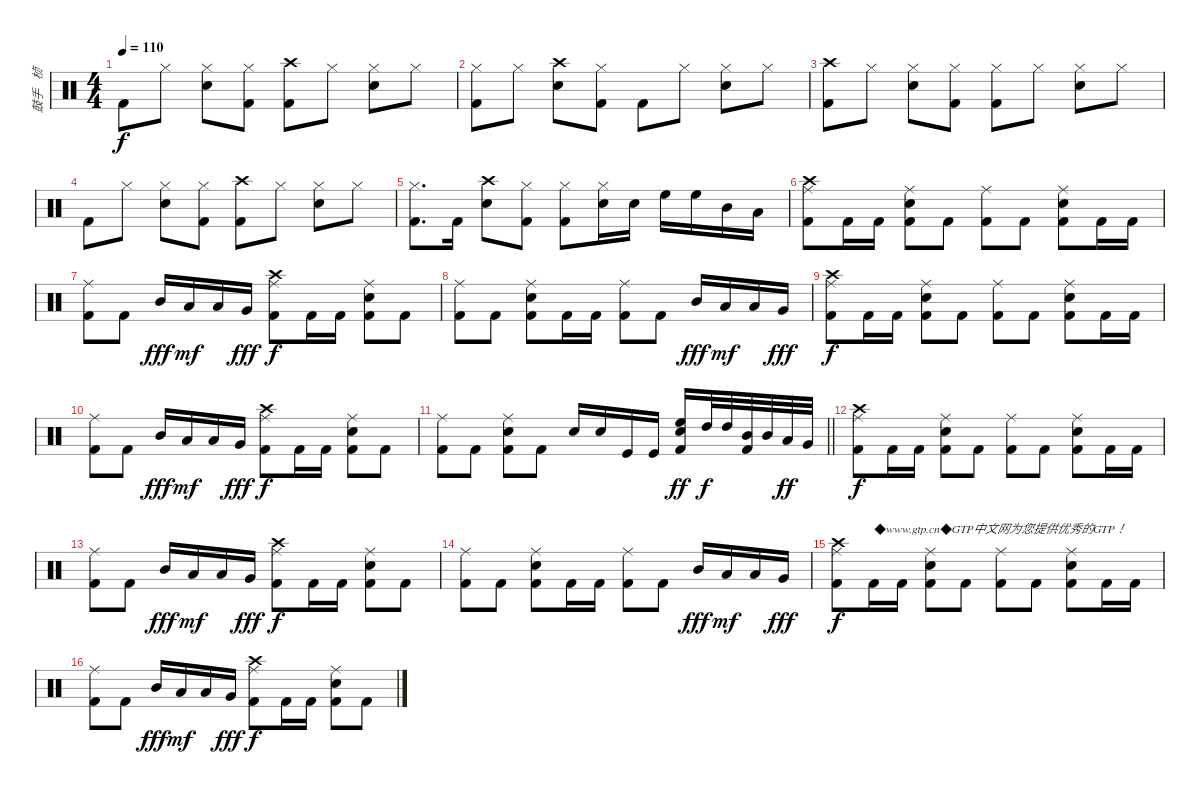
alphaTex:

\track ("鼓手   桢" "鼓手   桢") {instrument percussion bank 1}
\staff {score}
\articulation defaults
\ts (4 4)
\tempo 110
\clef neutral
\ks c "Kick (hit) 2".8{dy f} "Hi-Hat (closed)".8
("Hi-Hat (closed)" "Snare (hit) 2").8 ("Hi-Hat (closed)" "Kick (hit) 2").8 ("Crash high (hit)" "Kick (hit) 2").8 "Hi-Hat (closed)".8 ("Hi-Hat (closed)" "Snare (hit) 2").8 "Hi-Hat (closed)".8 |
("Hi-Hat (closed)" "Kick (hit) 2").8 "Hi-Hat (closed)".8 ("Crash high (hit)" "Snare (hit) 2").8 ("Hi-Hat (closed)" "Kick (hit) 2").8 "Kick (hit) 2".8 "Hi-Hat (closed)".8 ("Hi-Hat (closed)" "Snare (hit) 2").8 "Hi-Hat (closed)".8 |
("Crash high (hit)" "Kick (hit) 2").8 "Hi-Hat (closed)".8 ("Hi-Hat (closed)" "Snare (hit) 2").8 ("Hi-Hat (closed)" "Kick (hit) 2").8 ("Hi-Hat (closed)" "Kick (hit) 2").8 "Hi-Hat (closed)".8 ("Hi-Hat (closed)" "Snare (hit) 2").8 "Hi-Hat (closed)".8 |
"Kick (hit) 2".8 "Hi-Hat (closed)".8 ("Hi-Hat (closed)" "Snare (hit) 2").8 ("Hi-Hat (closed)" "Kick (hit) 2").8 ("Crash high (hit)" "Kick (hit) 2").8 "Hi-Hat (closed)".8 ("Hi-Hat (closed)" "Snare (hit) 2").8 "Hi-Hat (closed)".8 |
("Hi-Hat (closed)" "Kick (hit) 2").8{d} "Kick (hit) 2".16 ("Crash high (hit)" "Snare (hit) 2").8 ("Hi-Hat (closed)" "Kick (hit) 2").8 ("Hi-Hat (closed)" "Kick (hit) 2").8 ("Hi-Hat (closed)" "Snare (hit) 2").16 "Snare (hit) 2".16 "High Floor Tom (hit)".16 "High Floor Tom (hit)".16 "Mid Tom (hit)".16 "Low Tom (hit)".16 |
("Ride (middle)" "Kick (hit) 2" "Crash high (hit)").8 "Kick (hit) 2".16 "Kick (hit) 2".16 ("Ride (middle)" "Snare (hit) 2" "Kick (hit) 2").8 "Kick (hit) 2".8 ("Ride (middle)" "Kick (hit) 2").8 "Kick (hit) 2".8 ("Ride (middle)" "Snare (hit) 2" "Kick (hit) 2").8 "Kick (hit) 2".16 "Kick (hit) 2".16 |
("Ride (middle)" "Kick (hit) 2").8 "Kick (hit) 2".8 "Mid Tom (hit)".16{dy fff} "Low Tom (hit)".16{dy mf} "Low Tom (hit)".16 "Very Low Tom (hit)".16{dy fff} ("Ride (middle)" "Kick (hit) 2" "Crash high (hit)").8{dy f} "Kick (hit) 2".16 "Kick (hit) 2".16 ("Ride (middle)" "Snare (hit) 2" "Kick (hit) 2").8 "Kick (hit) 2".8 |
("Ride (middle)" "Kick (hit) 2").8 "Kick (hit) 2".8 ("Ride (middle)" "Snare (hit) 2" "Kick (hit) 2").8 "Kick (hit) 2".16 "Kick (hit) 2".16 ("Ride (middle)" "Kick (hit) 2").8 "Kick (hit) 2".8 "Mid Tom (hit)".16{dy fff} "Low Tom (hit)".16{dy mf} "Low Tom (hit)".16 "Very Low Tom (hit)".16{dy fff} |
("Ride (middle)" "Kick (hit) 2" "Crash high (hit)").8{dy f} "Kick (hit) 2".16 "Kick (hit) 2".16 ("Ride (middle)" "Snare (hit) 2" "Kick (hit) 2").8 "Kick (hit) 2".8 ("Ride (middle)" "Kick (hit) 2").8 "Kick (hit) 2".8 ("Ride (middle)" "Snare (hit) 2" "Kick (hit) 2").8 "Kick (hit) 2".16 "Kick (hit) 2".16 |
("Ride (middle)" "Kick (hit) 2").8 "Kick (hit) 2".8 "Mid Tom (hit)".16{dy fff} "Low Tom (hit)".16{dy mf} "Low Tom (hit)".16 "Very Low Tom (hit)".16{dy fff} ("Ride (middle)" "Kick (hit) 2" "Crash high (hit)").8{dy f} "Kick (hit) 2".16 "Kick (hit) 2".16 ("Ride (middle)" "Snare (hit) 2" "Kick (hit) 2").8 "Kick (hit) 2".8 |
\barLineRight lightlight
("Ride (middle)" "Kick (hit) 2").8 "Kick (hit) 2".8 ("Ride (middle)" "Snare (hit) 2" "Kick (hit) 2").8 "Kick (hit) 2".8 "Snare (hit) 2".16 "Snare (hit) 2".16 "Kick (hit)".16 "Kick (hit)".16 ("Electric Snare (hit)" "High Floor Tom (hit)" "Kick (hit) 2").16{dy ff} "High Tom (hit)".32{dy f} "High Tom (hit)".32 ("Mid Tom (hit)" "Kick (hit) 2").32 "Mid Tom (hit)".32 "Low Tom (hit)".32{dy ff} "Very Low Tom (hit)".32 |
("Ride (middle)" "Kick (hit) 2" "Crash high (hit)").8{dy f} "Kick (hit) 2".16 "Kick (hit) 2".16 ("Ride (middle)" "Snare (hit) 2" "Kick (hit) 2").8 "Kick (hit) 2".8 ("Ride (middle)" "Kick (hit) 2").8 "Kick (hit) 2".8 ("Ride (middle)" "Snare (hit) 2" "Kick (hit) 2").8 "Kick (hit) 2".16 "Kick (hit) 2".16 |
("Ride (middle)" "Kick (hit) 2").8 "Kick (hit) 2".8 "Mid Tom (hit)".16{dy fff} "Low Tom (hit)".16{dy mf} "Low Tom (hit)".16 "Very Low Tom (hit)".16{dy fff} ("Ride (middle)" "Kick (hit) 2" "Crash high (hit)").8{dy f} "Kick (hit) 2".16 "Kick (hit) 2".16 ("Ride (middle)" "Snare (hit) 2" "Kick (hit) 2").8 "Kick (hit) 2".8 |
("Ride (middle)" "Kick (hit) 2").8 "Kick (hit) 2".8 ("Ride (middle)" "Snare (hit) 2" "Kick (hit) 2").8 "Kick (hit) 2".16 "Kick (hit) 2".16 ("Ride (middle)" "Kick (hit) 2").8 "Kick (hit) 2".8 "Mid Tom (hit)".16{dy fff} "Low Tom (hit)".16{dy mf} "Low Tom (hit)".16 "Very Low Tom (hit)".16{dy fff} |
("Ride (middle)" "Kick (hit) 2" "Crash high (hit)").8{dy f} "Kick (hit) 2".16{txt "◆www.gtp.cn◆GTP中文网为您提供优秀的GTP！"} "Kick (hit) 2".16 ("Ride (middle)" "Snare (hit) 2" "Kick (hit) 2").8 "Kick (hit) 2".8 ("Ride (middle)" "Kick (hit) 2").8 "Kick (hit) 2".8 ("Ride (middle)" "Snare (hit) 2" "Kick (hit) 2").8 "Kick (hit) 2".16 "Kick (hit) 2".16 |
("Ride (middle)" "Kick (hit) 2").8 "Kick (hit) 2".8 "Mid Tom (hit)".16{dy fff} "Low Tom (hit)".16{dy mf} "Low Tom (hit)".16 "Very Low Tom (hit)".16{dy fff} ("Ride (middle)" "Kick (hit) 2" "Crash high (hit)").8{dy f} "Kick (hit) 2".16 "Kick (hit) 2".16 ("Ride (middle)" "Snare (hit) 2" "Kick (hit) 2").8 "Kick (hit) 2".8
